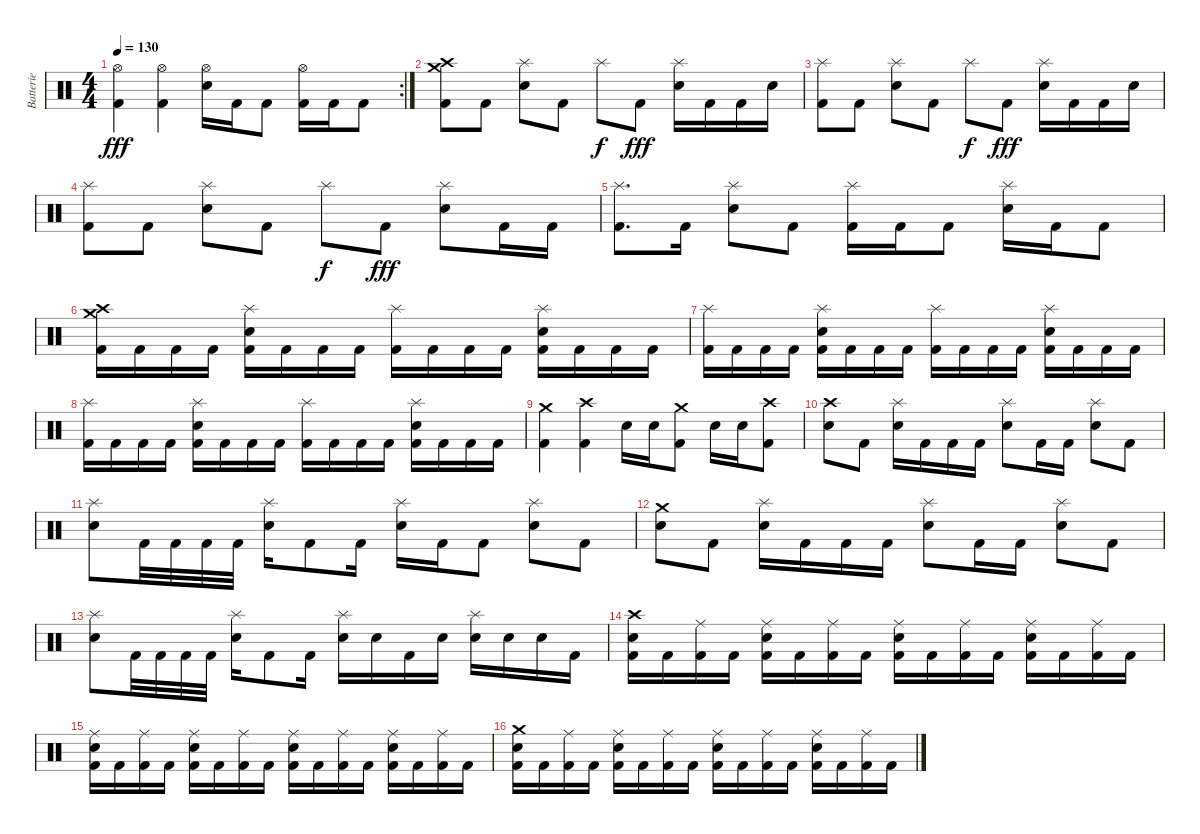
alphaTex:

\track ("Batterie" "Batterie") {instrument percussion}
\staff {score}
\articulation defaults
\rc 2
\ts (4 4)
\tempo 130
\clef neutral
\ks c
("Hi-Hat (open)" "Kick (hit) 2").4{dy fff} ("Hi-Hat (open)" "Kick (hit) 2").4 ("Hi-Hat (open)" "Electric Snare (hit)").16 "Kick (hit) 2".16 "Kick (hit) 2".8 ("Hi-Hat (open)" "Kick (hit) 2").16 "Kick (hit) 2".16 "Kick (hit) 2".8 |
("Crash high (hit)" "Crash medium (hit)" "Kick (hit) 2").8 "Kick (hit) 2".8 ("Splash (hit)" "Electric Snare (hit)").8 "Kick (hit) 2".8 "Splash (hit)".8{dy f} "Kick (hit) 2".8{dy fff} ("Splash (hit)" "Electric Snare (hit)").16 "Kick (hit) 2".16 "Kick (hit) 2".16 "Electric Snare (hit)".16 |
("Splash (hit)" "Kick (hit) 2").8 "Kick (hit) 2".8 ("Splash (hit)" "Electric Snare (hit)").8 "Kick (hit) 2".8 "Splash (hit)".8{dy f} "Kick (hit) 2".8{dy fff} ("Splash (hit)" "Electric Snare (hit)").16 "Kick (hit) 2".16 "Kick (hit) 2".16 "Electric Snare (hit)".16 |
("Splash (hit)" "Kick (hit) 2").8 "Kick (hit) 2".8 ("Splash (hit)" "Electric Snare (hit)").8 "Kick (hit) 2".8 "Splash (hit)".8{dy f} "Kick (hit) 2".8{dy fff} ("Splash (hit)" "Electric Snare (hit)").8 "Kick (hit) 2".16 "Kick (hit) 2".16 |
("Splash (hit)" "Kick (hit) 2").8{d} "Kick (hit) 2".16 ("Splash (hit)" "Electric Snare (hit)").8 "Kick (hit) 2".8 ("Splash (hit)" "Kick (hit) 2").16 "Kick (hit) 2".16 "Kick (hit) 2".8 ("Splash (hit)" "Electric Snare (hit)").16 "Kick (hit) 2".16 "Kick (hit) 2".8 |
("Crash high (hit)" "Crash medium (hit)" "Kick (hit) 2").16 "Kick (hit) 2".16 "Kick (hit) 2".16 "Kick (hit) 2".16 ("Splash (hit)" "Electric Snare (hit)" "Kick (hit) 2").16 "Kick (hit) 2".16 "Kick (hit) 2".16 "Kick (hit) 2".16 ("Splash (hit)" "Kick (hit) 2").16 "Kick (hit) 2".16 "Kick (hit) 2".16 "Kick (hit) 2".16 ("Splash (hit)" "Electric Snare (hit)" "Kick (hit) 2").16 "Kick (hit) 2".16 "Kick (hit) 2".16 "Kick (hit) 2".16 |
("Splash (hit)" "Kick (hit) 2").16 "Kick (hit) 2".16 "Kick (hit) 2".16 "Kick (hit) 2".16 ("Splash (hit)" "Electric Snare (hit)" "Kick (hit) 2").16 "Kick (hit) 2".16 "Kick (hit) 2".16 "Kick (hit) 2".16 ("Splash (hit)" "Kick (hit) 2").16 "Kick (hit) 2".16 "Kick (hit) 2".16 "Kick (hit) 2".16 ("Splash (hit)" "Electric Snare (hit)" "Kick (hit) 2").16 "Kick (hit) 2".16 "Kick (hit) 2".16 "Kick (hit) 2".16 |
("Splash (hit)" "Kick (hit) 2").16 "Kick (hit) 2".16 "Kick (hit) 2".16 "Kick (hit) 2".16 ("Splash (hit)" "Electric Snare (hit)" "Kick (hit) 2").16 "Kick (hit) 2".16 "Kick (hit) 2".16 "Kick (hit) 2".16 ("Splash (hit)" "Kick (hit) 2").16 "Kick (hit) 2".16 "Kick (hit) 2".16 "Kick (hit) 2".16 ("Splash (hit)" "Electric Snare (hit)" "Kick (hit) 2").16 "Kick (hit) 2".16 "Kick (hit) 2".16 "Kick (hit) 2".16 |
("Crash medium (hit)" "Kick (hit) 2").4 ("Crash high (hit)" "Kick (hit) 2").4 "Electric Snare (hit)".16 "Electric Snare (hit)".16 ("Crash medium (hit)" "Kick (hit) 2").8 "Electric Snare (hit)".16 "Electric Snare (hit)".16 ("Crash high (hit)" "Kick (hit) 2").8 |
("Crash high (hit)" "Electric Snare (hit)").8 "Kick (hit) 2".8 ("Splash (hit)" "Electric Snare (hit)").16 "Kick (hit) 2".16 "Kick (hit) 2".16 "Kick (hit) 2".16 ("Splash (hit)" "Electric Snare (hit)").8 "Kick (hit) 2".16 "Kick (hit) 2".16 ("Splash (hit)" "Electric Snare (hit)").8 "Kick (hit) 2".8 |
("Splash (hit)" "Electric Snare (hit)").8 "Kick (hit) 2".32 "Kick (hit) 2".32 "Kick (hit) 2".32 "Kick (hit) 2".32 ("Splash (hit)" "Electric Snare (hit)").16 "Kick (hit) 2".8 "Kick (hit) 2".16 ("Splash (hit)" "Electric Snare (hit)").16 "Kick (hit) 2".16 "Kick (hit) 2".8 ("Splash (hit)" "Electric Snare (hit)").8 "Kick (hit) 2".8 |
("Crash medium (hit)" "Electric Snare (hit)").8 "Kick (hit) 2".8 ("Splash (hit)" "Electric Snare (hit)").16 "Kick (hit) 2".16 "Kick (hit) 2".16 "Kick (hit) 2".16 ("Splash (hit)" "Electric Snare (hit)").8 "Kick (hit) 2".16 "Kick (hit) 2".16 ("Splash (hit)" "Electric Snare (hit)").8 "Kick (hit) 2".8 |
("Splash (hit)" "Electric Snare (hit)").8 "Kick (hit) 2".32 "Kick (hit) 2".32 "Kick (hit) 2".32 "Kick (hit) 2".32 ("Splash (hit)" "Electric Snare (hit)").16 "Kick (hit) 2".8 "Kick (hit) 2".16 ("Splash (hit)" "Electric Snare (hit)").16 "Electric Snare (hit)".16 "Kick (hit) 2".16 "Electric Snare (hit)".16 ("Splash (hit)" "Electric Snare (hit)").16 "Electric Snare (hit)".16 "Electric Snare (hit)".16 "Kick (hit) 2".16 |
("Crash high (hit)" "Electric Snare (hit)" "Kick (hit) 2").16 "Kick (hit) 2".16 ("Ride (middle)" "Kick (hit) 2").16 "Kick (hit) 2".16 ("Ride (middle)" "Electric Snare (hit)" "Kick (hit) 2").16 "Kick (hit) 2".16 ("Ride (middle)" "Kick (hit) 2").16 "Kick (hit) 2".16 ("Ride (middle)" "Electric Snare (hit)" "Kick (hit) 2").16 "Kick (hit) 2".16 ("Ride (middle)" "Kick (hit) 2").16 "Kick (hit) 2".16 ("Ride (middle)" "Electric Snare (hit)" "Kick (hit) 2").16 "Kick (hit) 2".16 ("Ride (middle)" "Kick (hit) 2").16 "Kick (hit) 2".16 |
("Ride (middle)" "Electric Snare (hit)" "Kick (hit) 2").16 "Kick (hit) 2".16 ("Ride (middle)" "Kick (hit) 2").16 "Kick (hit) 2".16 ("Ride (middle)" "Electric Snare (hit)" "Kick (hit) 2").16 "Kick (hit) 2".16 ("Ride (middle)" "Kick (hit) 2").16 "Kick (hit) 2".16 ("Ride (middle)" "Electric Snare (hit)" "Kick (hit) 2").16 "Kick (hit) 2".16 ("Ride (middle)" "Kick (hit) 2").16 "Kick (hit) 2".16 ("Ride (middle)" "Electric Snare (hit)" "Kick (hit) 2").16 "Kick (hit) 2".16 ("Ride (middle)" "Kick (hit) 2").16 "Kick (hit) 2".16 |
("Crash medium (hit)" "Electric Snare (hit)" "Kick (hit) 2").16 "Kick (hit) 2".16 ("Ride (middle)" "Kick (hit) 2").16 "Kick (hit) 2".16 ("Ride (middle)" "Electric Snare (hit)" "Kick (hit) 2").16 "Kick (hit) 2".16 ("Ride (middle)" "Kick (hit) 2").16 "Kick (hit) 2".16 ("Ride (middle)" "Electric Snare (hit)" "Kick (hit) 2").16 "Kick (hit) 2".16 ("Ride (middle)" "Kick (hit) 2").16 "Kick (hit) 2".16 ("Ride (middle)" "Electric Snare (hit)" "Kick (hit) 2").16 "Kick (hit) 2".16 ("Ride (middle)" "Kick (hit) 2").16 "Kick (hit) 2".16
